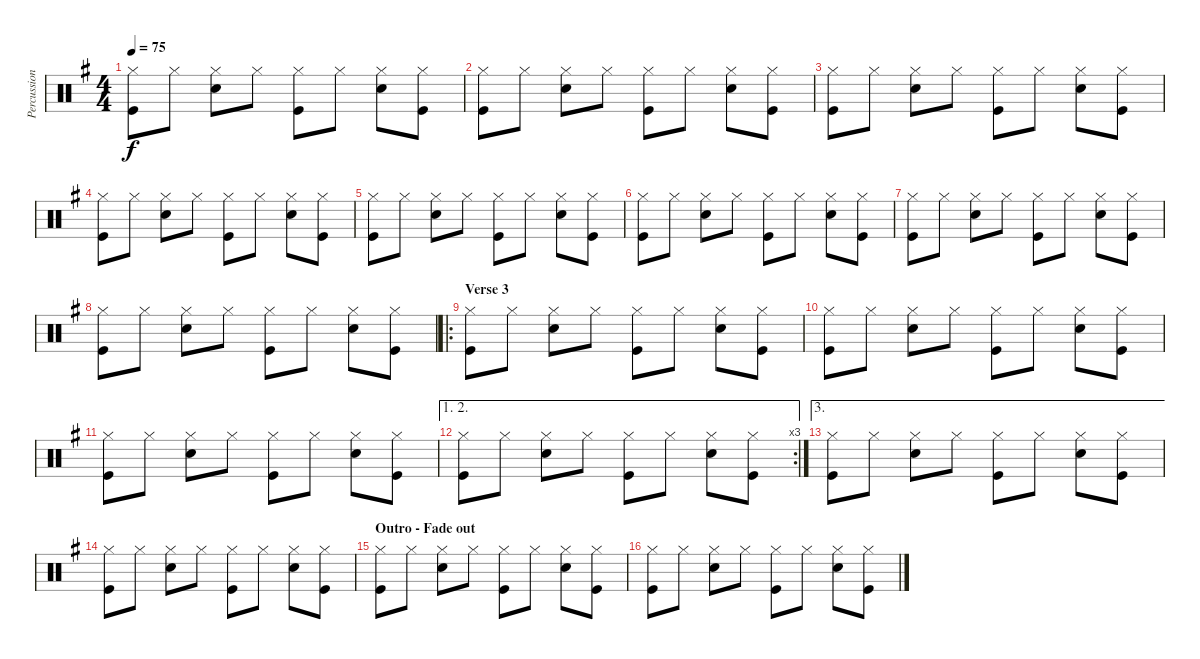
\track ("Percussion" "Percussion") {instrument percussion}
\staff {score}
\articulation defaults
\ts (4 4)
\tempo 75
\clef neutral
\ks g
("Hi-Hat (closed)" "Kick (hit)").8{dy f} "Hi-Hat (closed)".8 ("Hi-Hat (closed)" "Snare (hit) 2").8 "Hi-Hat (closed)".8 ("Hi-Hat (closed)" "Kick (hit)").8 "Hi-Hat (closed)".8 ("Hi-Hat (closed)" "Snare (hit) 2").8 ("Hi-Hat (closed)" "Kick (hit)").8 |
("Hi-Hat (closed)" "Kick (hit)").8 "Hi-Hat (closed)".8 ("Hi-Hat (closed)" "Snare (hit) 2").8 "Hi-Hat (closed)".8 ("Hi-Hat (closed)" "Kick (hit)").8 "Hi-Hat (closed)".8 ("Hi-Hat (closed)" "Snare (hit) 2").8 ("Hi-Hat (closed)" "Kick (hit)").8 |
("Hi-Hat (closed)" "Kick (hit)").8 "Hi-Hat (closed)".8 ("Hi-Hat (closed)" "Snare (hit) 2").8 "Hi-Hat (closed)".8 ("Hi-Hat (closed)" "Kick (hit)").8 "Hi-Hat (closed)".8 ("Hi-Hat (closed)" "Snare (hit) 2").8 ("Hi-Hat (closed)" "Kick (hit)").8 |
("Hi-Hat (closed)" "Kick (hit)").8 "Hi-Hat (closed)".8 ("Hi-Hat (closed)" "Snare (hit) 2").8 "Hi-Hat (closed)".8 ("Hi-Hat (closed)" "Kick (hit)").8 "Hi-Hat (closed)".8 ("Hi-Hat (closed)" "Snare (hit) 2").8 ("Hi-Hat (closed)" "Kick (hit)").8 |
("Hi-Hat (closed)" "Kick (hit)").8 "Hi-Hat (closed)".8 ("Hi-Hat (closed)" "Snare (hit) 2").8 "Hi-Hat (closed)".8 ("Hi-Hat (closed)" "Kick (hit)").8 "Hi-Hat (closed)".8 ("Hi-Hat (closed)" "Snare (hit) 2").8 ("Hi-Hat (closed)" "Kick (hit)").8 |
("Hi-Hat (closed)" "Kick (hit)").8 "Hi-Hat (closed)".8 ("Hi-Hat (closed)" "Snare (hit) 2").8 "Hi-Hat (closed)".8 ("Hi-Hat (closed)" "Kick (hit)").8 "Hi-Hat (closed)".8 ("Hi-Hat (closed)" "Snare (hit) 2").8 ("Hi-Hat (closed)" "Kick (hit)").8 |
("Hi-Hat (closed)" "Kick (hit)").8 "Hi-Hat (closed)".8 ("Hi-Hat (closed)" "Snare (hit) 2").8 "Hi-Hat (closed)".8 ("Hi-Hat (closed)" "Kick (hit)").8 "Hi-Hat (closed)".8 ("Hi-Hat (closed)" "Snare (hit) 2").8 ("Hi-Hat (closed)" "Kick (hit)").8 |
("Hi-Hat (closed)" "Kick (hit)").8 "Hi-Hat (closed)".8 ("Hi-Hat (closed)" "Snare (hit) 2").8 "Hi-Hat (closed)".8 ("Hi-Hat (closed)" "Kick (hit)").8 "Hi-Hat (closed)".8 ("Hi-Hat (closed)" "Snare (hit) 2").8 ("Hi-Hat (closed)" "Kick (hit)").8 |
\ro
\section ("" "Verse 3")
("Hi-Hat (closed)" "Kick (hit)").8 "Hi-Hat (closed)".8 ("Hi-Hat (closed)" "Snare (hit) 2").8 "Hi-Hat (closed)".8 ("Hi-Hat (closed)" "Kick (hit)").8 "Hi-Hat (closed)".8 ("Hi-Hat (closed)" "Snare (hit) 2").8 ("Hi-Hat (closed)" "Kick (hit)").8 |
("Hi-Hat (closed)" "Kick (hit)").8 "Hi-Hat (closed)".8 ("Hi-Hat (closed)" "Snare (hit) 2").8 "Hi-Hat (closed)".8 ("Hi-Hat (closed)" "Kick (hit)").8 "Hi-Hat (closed)".8 ("Hi-Hat (closed)" "Snare (hit) 2").8 ("Hi-Hat (closed)" "Kick (hit)").8 |
("Hi-Hat (closed)" "Kick (hit)").8 "Hi-Hat (closed)".8 ("Hi-Hat (closed)" "Snare (hit) 2").8 "Hi-Hat (closed)".8 ("Hi-Hat (closed)" "Kick (hit)").8 "Hi-Hat (closed)".8 ("Hi-Hat (closed)" "Snare (hit) 2").8 ("Hi-Hat (closed)" "Kick (hit)").8 |
\ae (1 2)
\rc 3
("Hi-Hat (closed)" "Kick (hit)").8 "Hi-Hat (closed)".8 ("Hi-Hat (closed)" "Snare (hit) 2").8 "Hi-Hat (closed)".8 ("Hi-Hat (closed)" "Kick (hit)").8 "Hi-Hat (closed)".8 ("Hi-Hat (closed)" "Snare (hit) 2").8 ("Hi-Hat (closed)" "Kick (hit)").8 |
\ae 3
("Hi-Hat (closed)" "Kick (hit)").8 "Hi-Hat (closed)".8 ("Hi-Hat (closed)" "Snare (hit) 2").8 "Hi-Hat (closed)".8 ("Hi-Hat (closed)" "Kick (hit)").8 "Hi-Hat (closed)".8 ("Hi-Hat (closed)" "Snare (hit) 2").8 ("Hi-Hat (closed)" "Kick (hit)").8 |
("Hi-Hat (closed)" "Kick (hit)").8 "Hi-Hat (closed)".8 ("Hi-Hat (closed)" "Snare (hit) 2").8 "Hi-Hat (closed)".8 ("Hi-Hat (closed)" "Kick (hit)").8 "Hi-Hat (closed)".8 ("Hi-Hat (closed)" "Snare (hit) 2").8 ("Hi-Hat (closed)" "Kick (hit)").8 |
\section ("" "Outro - Fade out")
("Hi-Hat (closed)" "Kick (hit)").8 "Hi-Hat (closed)".8 ("Hi-Hat (closed)" "Snare (hit) 2").8 "Hi-Hat (closed)".8 ("Hi-Hat (closed)" "Kick (hit)").8 "Hi-Hat (closed)".8 ("Hi-Hat (closed)" "Snare (hit) 2").8 ("Hi-Hat (closed)" "Kick (hit)").8 |
("Hi-Hat (closed)" "Kick (hit)").8 "Hi-Hat (closed)".8 ("Hi-Hat (closed)" "Snare (hit) 2").8 "Hi-Hat (closed)".8 ("Hi-Hat (closed)" "Kick (hit)").8 "Hi-Hat (closed)".8 ("Hi-Hat (closed)" "Snare (hit) 2").8 ("Hi-Hat (closed)" "Kick (hit)").8
